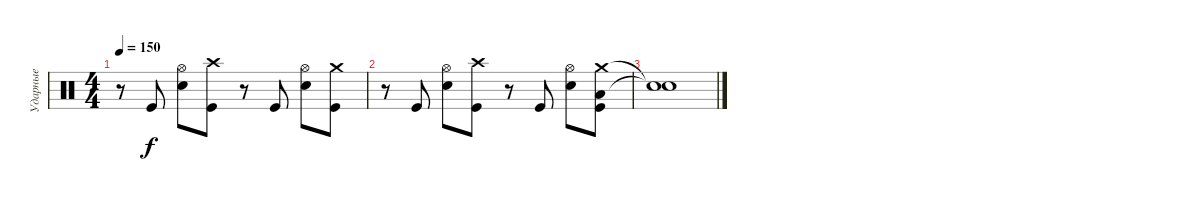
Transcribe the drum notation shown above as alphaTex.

\track ("Ударные" "Ударные") {instrument percussion}
\staff {score}
\articulation defaults
\ts (4 4)
\tempo 150
\clef neutral
\ks c
r.8{dy f} "Kick (hit)".8 ("Hi-Hat (open)" "Electric Snare (hit)").8 ("Crash high (hit)" "Kick (hit)").8 r.8 "Kick (hit)".8 ("Hi-Hat (open)" "Electric Snare (hit)").8 ("Crash medium (hit)" "Kick (hit)").8 |
r.8 "Kick (hit)".8 ("Hi-Hat (open)" "Electric Snare (hit)").8 ("Crash high (hit)" "Kick (hit)").8 r.8 "Kick (hit)".8 ("Hi-Hat (open)" "Electric Snare (hit)").8 ("Crash medium (hit)" "Low Floor Tom (hit)" "Kick (hit)").8 |
("Snare (hit)"{t} "Snare (hit)"{t}).1
